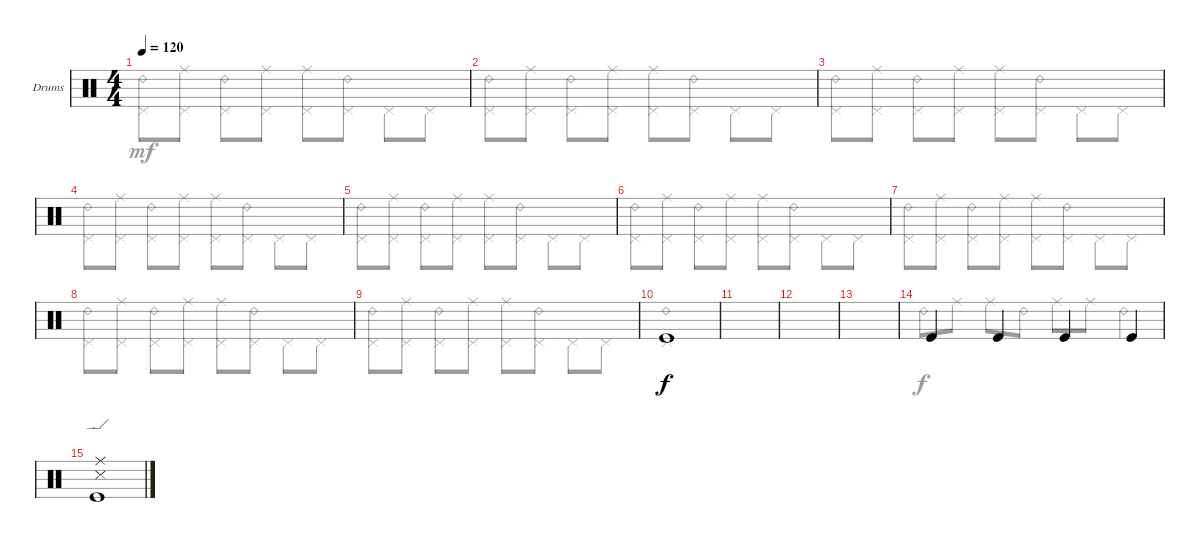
\defaultSystemsLayout 4
\bracketExtendMode groupsimilarinstruments
\firstSystemTrackNameOrientation horizontal
\otherSystemsTrackNameOrientation horizontal
\track ("Drumkit" "Drums") {instrument percussion}
\staff {score}
\articulation defaults
\voice
\ts (4 4)
\tempo 120
\clef neutral
\ks c
|
|
|
|
|
|
|
|
|
"Kick (hit)".1 |
|
|
|
"Kick (hit)".4 "Kick (hit)".4 "Kick (hit)".4 "Kick (hit)".4 |
("Kick (hit)" "Ride (edge)" "Snare (side stick) 3").1 |
\voice
\clef neutral
\ottava regular
\simile none
\ks c
("Ride (bell) 2" "Pedal Hi-Hat (hit)").8{dy mf} ("Ride (middle)" "Pedal Hi-Hat (hit)").8 ("Ride (bell) 2" "Pedal Hi-Hat (hit)").8 ("Ride (middle)" "Pedal Hi-Hat (hit)").8 ("Ride (middle)" "Pedal Hi-Hat (hit)").8 ("Ride (bell) 2" "Pedal Hi-Hat (hit)").8 "Pedal Hi-Hat (hit)".8 "Pedal Hi-Hat (hit)".8 |
("Ride (bell) 2" "Pedal Hi-Hat (hit)").8 ("Ride (middle)" "Pedal Hi-Hat (hit)").8 ("Ride (bell) 2" "Pedal Hi-Hat (hit)").8 ("Ride (middle)" "Pedal Hi-Hat (hit)").8 ("Ride (middle)" "Pedal Hi-Hat (hit)").8 ("Ride (bell) 2" "Pedal Hi-Hat (hit)").8 "Pedal Hi-Hat (hit)".8 "Pedal Hi-Hat (hit)".8 |
("Ride (bell) 2" "Pedal Hi-Hat (hit)").8 ("Ride (middle)" "Pedal Hi-Hat (hit)").8 ("Ride (bell) 2" "Pedal Hi-Hat (hit)").8 ("Ride (middle)" "Pedal Hi-Hat (hit)").8 ("Ride (middle)" "Pedal Hi-Hat (hit)").8 ("Ride (bell) 2" "Pedal Hi-Hat (hit)").8 "Pedal Hi-Hat (hit)".8 "Pedal Hi-Hat (hit)".8 |
("Ride (bell) 2" "Pedal Hi-Hat (hit)").8 ("Ride (middle)" "Pedal Hi-Hat (hit)").8 ("Ride (bell) 2" "Pedal Hi-Hat (hit)").8 ("Ride (middle)" "Pedal Hi-Hat (hit)").8 ("Ride (middle)" "Pedal Hi-Hat (hit)").8 ("Ride (bell) 2" "Pedal Hi-Hat (hit)").8 "Pedal Hi-Hat (hit)".8 "Pedal Hi-Hat (hit)".8 |
("Ride (bell) 2" "Pedal Hi-Hat (hit)").8 ("Ride (middle)" "Pedal Hi-Hat (hit)").8 ("Ride (bell) 2" "Pedal Hi-Hat (hit)").8 ("Ride (middle)" "Pedal Hi-Hat (hit)").8 ("Ride (middle)" "Pedal Hi-Hat (hit)").8 ("Ride (bell) 2" "Pedal Hi-Hat (hit)").8 "Pedal Hi-Hat (hit)".8 "Pedal Hi-Hat (hit)".8 |
("Ride (bell) 2" "Pedal Hi-Hat (hit)").8 ("Ride (middle)" "Pedal Hi-Hat (hit)").8 ("Ride (bell) 2" "Pedal Hi-Hat (hit)").8 ("Ride (middle)" "Pedal Hi-Hat (hit)").8 ("Ride (middle)" "Pedal Hi-Hat (hit)").8 ("Ride (bell) 2" "Pedal Hi-Hat (hit)").8 "Pedal Hi-Hat (hit)".8 "Pedal Hi-Hat (hit)".8 |
("Ride (bell) 2" "Pedal Hi-Hat (hit)").8 ("Ride (middle)" "Pedal Hi-Hat (hit)").8 ("Ride (bell) 2" "Pedal Hi-Hat (hit)").8 ("Ride (middle)" "Pedal Hi-Hat (hit)").8 ("Ride (middle)" "Pedal Hi-Hat (hit)").8 ("Ride (bell) 2" "Pedal Hi-Hat (hit)").8 "Pedal Hi-Hat (hit)".8 "Pedal Hi-Hat (hit)".8 |
("Ride (bell) 2" "Pedal Hi-Hat (hit)").8 ("Ride (middle)" "Pedal Hi-Hat (hit)").8 ("Ride (bell) 2" "Pedal Hi-Hat (hit)").8 ("Ride (middle)" "Pedal Hi-Hat (hit)").8 ("Ride (middle)" "Pedal Hi-Hat (hit)").8 ("Ride (bell) 2" "Pedal Hi-Hat (hit)").8 "Pedal Hi-Hat (hit)".8 "Pedal Hi-Hat (hit)".8 |
("Ride (bell) 2" "Pedal Hi-Hat (hit)").8 ("Ride (middle)" "Pedal Hi-Hat (hit)").8 ("Ride (bell) 2" "Pedal Hi-Hat (hit)").8 ("Ride (middle)" "Pedal Hi-Hat (hit)").8 ("Ride (middle)" "Pedal Hi-Hat (hit)").8 ("Ride (bell) 2" "Pedal Hi-Hat (hit)").8 "Pedal Hi-Hat (hit)".8 "Pedal Hi-Hat (hit)".8 |
("Ride (bell) 2" "Pedal Hi-Hat (hit)").1 |
|
|
|
"Ride (bell) 2".8{dy f} "Ride (middle)".8 "Ride (middle)".8 "Ride (bell) 2".8 "Ride (middle)".8 "Ride (middle)".8 "Ride (bell) 2".4 |
|
